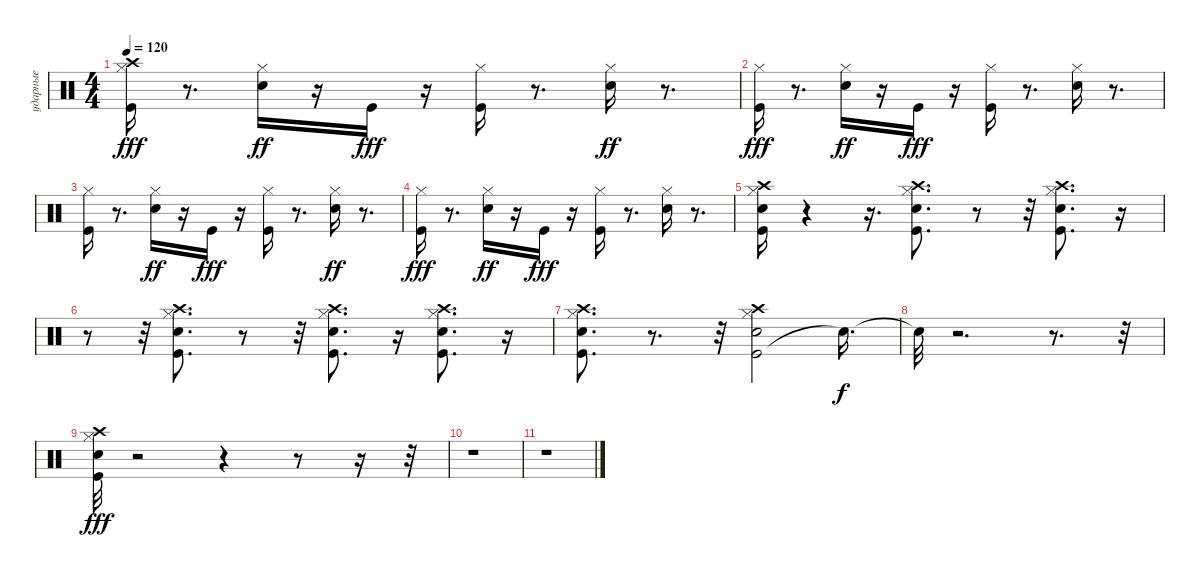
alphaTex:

\track ("ударные" "ударные") {instrument percussion}
\staff {score}
\articulation defaults
\ts (4 4)
\tempo 120
\clef neutral
\ks c
("Crash high (hit)" "Hi-Hat (closed)" "Kick (hit)").16{dy fff} r.8{d} ("Electric Snare (hit)" "Hi-Hat (closed)").16{dy ff} r.16 "Kick (hit)".16{dy fff} r.16 ("Kick (hit)" "Hi-Hat (closed)").16 r.8{d} ("Electric Snare (hit)" "Hi-Hat (closed)").16{dy ff} r.8{d} |
("Hi-Hat (closed)" "Kick (hit)").16{dy fff} r.8{d} ("Electric Snare (hit)" "Hi-Hat (closed)").16{dy ff} r.16 "Kick (hit)".16{dy fff} r.16 ("Kick (hit)" "Hi-Hat (closed)").16 r.8{d} ("Electric Snare (hit)" "Hi-Hat (closed)").16 r.8{d} |
("Hi-Hat (closed)" "Kick (hit)").16 r.8{d} ("Electric Snare (hit)" "Hi-Hat (closed)").16{dy ff} r.16 "Kick (hit)".16{dy fff} r.16 ("Kick (hit)" "Hi-Hat (closed)").16 r.8{d} ("Electric Snare (hit)" "Hi-Hat (closed)").16{dy ff} r.8{d} |
("Hi-Hat (closed)" "Kick (hit)").16{dy fff} r.8{d} ("Electric Snare (hit)" "Hi-Hat (closed)").16{dy ff} r.16 "Kick (hit)".16{dy fff} r.16 ("Kick (hit)" "Hi-Hat (closed)").16 r.8{d} ("Electric Snare (hit)" "Hi-Hat (closed)").16 r.8{d} |
("Electric Snare (hit)" "Crash high (hit)" "Hi-Hat (closed)" "Kick (hit)").16 r.4 r.16{d} ("Electric Snare (hit)" "Hi-Hat (closed)" "Kick (hit)" "Crash high (hit)").8{d} r.8 r.32 ("Electric Snare (hit)" "Hi-Hat (closed)" "Kick (hit)" "Crash high (hit)").8{d} r.16 |
r.8 r.32 ("Electric Snare (hit)" "Hi-Hat (closed)" "Kick (hit)" "Crash high (hit)").8{d} r.8 r.32 ("Electric Snare (hit)" "Hi-Hat (closed)" "Kick (hit)" "Crash high (hit)").8{d} r.16 ("Electric Snare (hit)" "Hi-Hat (closed)" "Kick (hit)" "Crash high (hit)").8{d} r.16 |
("Electric Snare (hit)" "Hi-Hat (closed)" "Kick (hit)" "Crash high (hit)").8{d} r.8{d} r.32 ("Kick (hit)" "Electric Snare (hit)" "Hi-Hat (closed)" "Crash high (hit)").2 "Snare (hit)"{t}.16{d dy f} |
"Snare (hit)"{t}.32 r.2{d} r.8{d} r.32 |
("Hi-Hat (closed)" "Crash high (hit)" "Electric Snare (hit)" "Kick (hit)").32{dy fff} r.2 r.4 r.8 r.16 r.32 |
r.1 |
r.1
